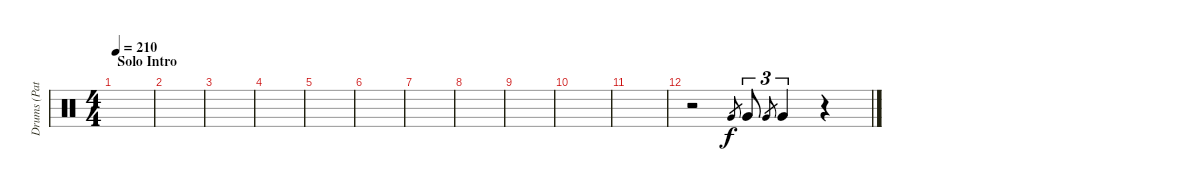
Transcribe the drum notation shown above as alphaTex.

\track ("Drums (Patrick Johansson)" "Drums (Pat") {instrument percussion}
\staff {score}
\articulation defaults
\ts (4 4)
\section ("" "Solo Intro")
\tempo 210
\clef neutral
\ks c
|
|
|
|
|
|
|
|
|
|
|
r.2 "Very Low Tom (hit)".8{gr} "Very Low Tom (hit)".8{tu (3 2)} "Very Low Tom (hit)".8{gr} "Very Low Tom (hit)".4{tu (3 2)} r.4
